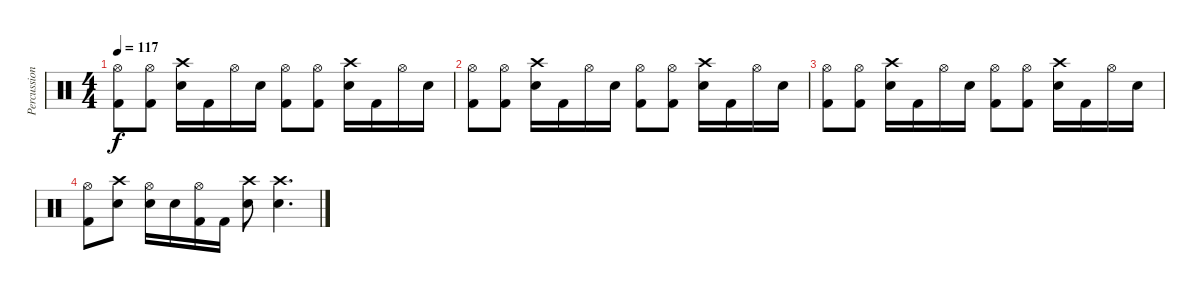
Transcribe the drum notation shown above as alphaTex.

\track ("Percussion" "Percussion") {instrument percussion}
\staff {score}
\articulation defaults
\ts (4 4)
\tempo 117
\clef neutral
\ks c
("Hi-Hat (open)" "Kick (hit) 2").8{dy f} ("Hi-Hat (open)" "Kick (hit) 2").8 ("Crash high (hit)" "Snare (hit) 2").16 "Kick (hit) 2".16 "Hi-Hat (open)".16 "Snare (hit) 2".16 ("Hi-Hat (open)" "Kick (hit) 2").8 ("Hi-Hat (open)" "Kick (hit) 2").8 ("Crash high (hit)" "Snare (hit) 2").16 "Kick (hit) 2".16 "Hi-Hat (open)".16 "Snare (hit) 2".16 |
("Hi-Hat (open)" "Kick (hit) 2").8 ("Hi-Hat (open)" "Kick (hit) 2").8 ("Crash high (hit)" "Snare (hit) 2").16 "Kick (hit) 2".16 "Hi-Hat (open)".16 "Snare (hit) 2".16 ("Hi-Hat (open)" "Kick (hit) 2").8 ("Hi-Hat (open)" "Kick (hit) 2").8 ("Crash high (hit)" "Snare (hit) 2").16 "Kick (hit) 2".16 "Hi-Hat (open)".16 "Snare (hit) 2".16 |
("Hi-Hat (open)" "Kick (hit) 2").8 ("Hi-Hat (open)" "Kick (hit) 2").8 ("Crash high (hit)" "Snare (hit) 2").16 "Kick (hit) 2".16 "Hi-Hat (open)".16 "Snare (hit) 2".16 ("Hi-Hat (open)" "Kick (hit) 2").8 ("Hi-Hat (open)" "Kick (hit) 2").8 ("Crash high (hit)" "Snare (hit) 2").16 "Kick (hit) 2".16 "Hi-Hat (open)".16 "Snare (hit) 2".16 |
("Hi-Hat (open)" "Kick (hit) 2").8 ("Crash high (hit)" "Snare (hit) 2").8 ("Hi-Hat (open)" "Snare (hit) 2").16 "Snare (hit) 2".16 ("Hi-Hat (open)" "Kick (hit) 2").16 "Kick (hit) 2".16 ("Crash high (hit)" "Snare (hit) 2").8 ("Crash high (hit)" "Snare (hit) 2").4{d volume 0}
